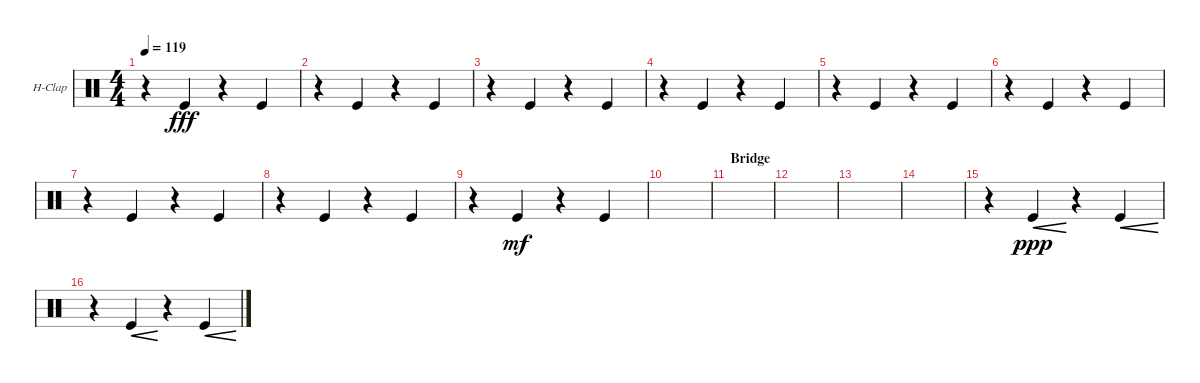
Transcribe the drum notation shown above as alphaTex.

\defaultSystemsLayout 4
\bracketExtendMode groupsimilarinstruments
\firstSystemTrackNameOrientation horizontal
\otherSystemsTrackNameOrientation horizontal
\track ("Hand Clap" "H-Clap") {instrument percussion}
\staff {score}
\articulation defaults
\ts (4 4)
\tempo 119
\clef neutral
\scale
0.333333
\ks c
r.4{dy fff} "Kick (hit)".4 r.4 "Kick (hit)".4 |
\scale
0.333333 r.4 "Kick (hit)".4 r.4 "Kick (hit)".4 |
\scale
0.333333 r.4 "Kick (hit)".4 r.4 "Kick (hit)".4 |
\scale
0.333333 r.4 "Kick (hit)".4 r.4 "Kick (hit)".4 |
\scale
0.333333 r.4 "Kick (hit)".4 r.4 "Kick (hit)".4 |
\scale
0.333333 r.4 "Kick (hit)".4 r.4 "Kick (hit)".4 |
\scale
0.333333 r.4 "Kick (hit)".4 r.4 "Kick (hit)".4 |
\scale
0.333333 r.4 "Kick (hit)".4 r.4 "Kick (hit)".4 |
\scale
0.333333 r.4 "Kick (hit)".4{dy mf} r.4 "Kick (hit)".4 |
\scale
0.333333 |
\section ("" "Bridge")
\scale
0.333333 |
\scale
0.333333 |
\scale
0.333333 |
\scale
0.333333 |
\scale
0.333333 r.4 "Kick (hit)".4{cre dy ppp} r.4 "Kick (hit)".4{cre} |
\scale
0.333333 r.4 "Kick (hit)".4{cre} r.4 "Kick (hit)".4{cre}
